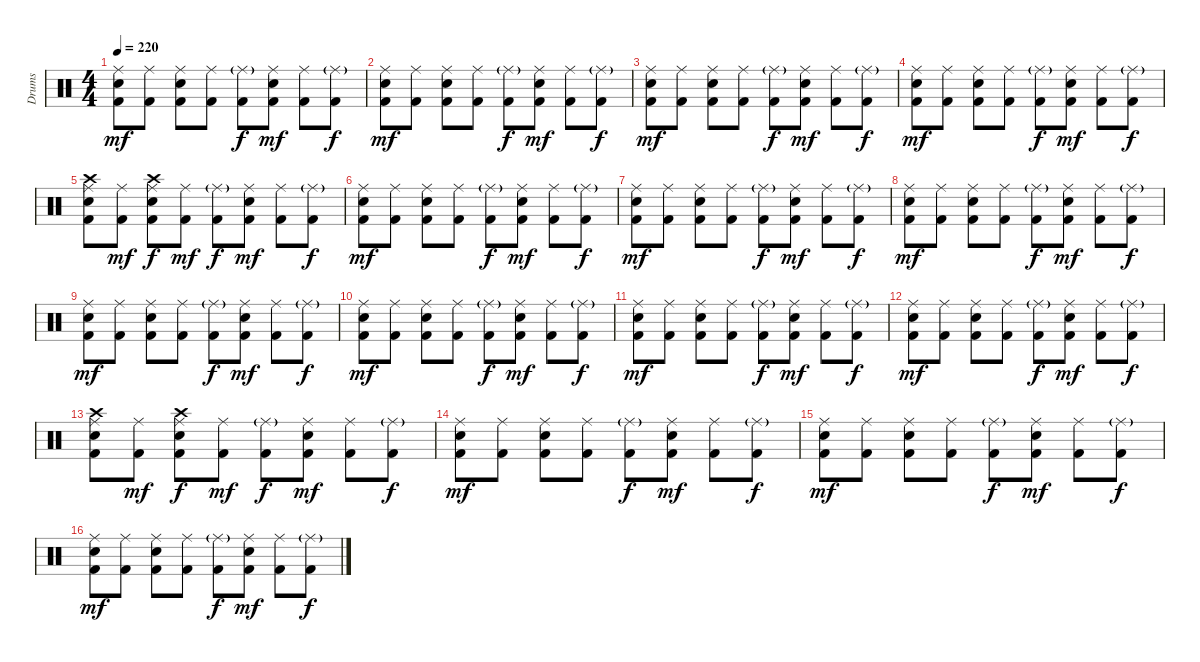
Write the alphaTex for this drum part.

\bracketExtendMode groupsimilarinstruments
\otherSystemsTrackNameOrientation horizontal
\track ("Drumkit" "Drums") {instrument percussion}
\staff {score}
\articulation defaults
\ts (4 4)
\tempo 220
\clef neutral
\ks c
("Ride (middle)" "Snare (hit) 2" "Kick (hit) 2").8{dy mf beam Down} ("Ride (middle)" "Kick (hit) 2").8{beam Down} ("Ride (middle)" "Snare (hit) 2" "Kick (hit) 2").8{beam Down} ("Ride (middle)" "Kick (hit) 2").8{beam Down} ("Ride (middle)"{g} "Kick (hit) 2").8{dy f beam Down} ("Ride (middle)" "Snare (hit) 2" "Kick (hit) 2").8{dy mf beam Down} ("Ride (middle)" "Kick (hit) 2").8{beam Down} ("Ride (middle)"{g} "Kick (hit) 2").8{dy f beam Down} |
("Ride (middle)" "Snare (hit) 2" "Kick (hit) 2").8{dy mf beam Down} ("Ride (middle)" "Kick (hit) 2").8{beam Down} ("Ride (middle)" "Snare (hit) 2" "Kick (hit) 2").8{beam Down} ("Ride (middle)" "Kick (hit) 2").8{beam Down} ("Ride (middle)"{g} "Kick (hit) 2").8{dy f beam Down} ("Ride (middle)" "Snare (hit) 2" "Kick (hit) 2").8{dy mf beam Down} ("Ride (middle)" "Kick (hit) 2").8{beam Down} ("Ride (middle)"{g} "Kick (hit) 2").8{dy f beam Down} |
("Ride (middle)" "Snare (hit) 2" "Kick (hit) 2").8{dy mf beam Down} ("Ride (middle)" "Kick (hit) 2").8{beam Down} ("Ride (middle)" "Snare (hit) 2" "Kick (hit) 2").8{beam Down} ("Ride (middle)" "Kick (hit) 2").8{beam Down} ("Ride (middle)"{g} "Kick (hit) 2").8{dy f beam Down} ("Ride (middle)" "Snare (hit) 2" "Kick (hit) 2").8{dy mf beam Down} ("Ride (middle)" "Kick (hit) 2").8{beam Down} ("Ride (middle)"{g} "Kick (hit) 2").8{dy f beam Down} |
("Ride (middle)" "Snare (hit) 2" "Kick (hit) 2").8{dy mf beam Down} ("Ride (middle)" "Kick (hit) 2").8{beam Down} ("Ride (middle)" "Snare (hit) 2" "Kick (hit) 2").8{beam Down} ("Ride (middle)" "Kick (hit) 2").8{beam Down} ("Ride (middle)"{g} "Kick (hit) 2").8{dy f beam Down} ("Ride (middle)" "Snare (hit) 2" "Kick (hit) 2").8{dy mf beam Down} ("Ride (middle)" "Kick (hit) 2").8{beam Down} ("Ride (middle)"{g} "Kick (hit) 2").8{dy f beam Down} |
("Crash high (hit)" "Ride (middle)" "Snare (hit) 2" "Kick (hit) 2").8{beam Down} ("Ride (middle)" "Kick (hit) 2").8{dy mf beam Down} ("Crash high (hit)" "Ride (middle)" "Snare (hit) 2" "Kick (hit) 2").8{dy f beam Down} ("Ride (middle)" "Kick (hit) 2").8{dy mf beam Down} ("Ride (middle)"{g} "Kick (hit) 2").8{dy f beam Down} ("Ride (middle)" "Snare (hit) 2" "Kick (hit) 2").8{dy mf beam Down} ("Ride (middle)" "Kick (hit) 2").8{beam Down} ("Ride (middle)"{g} "Kick (hit) 2").8{dy f beam Down} |
("Ride (middle)" "Snare (hit) 2" "Kick (hit) 2").8{dy mf beam Down} ("Ride (middle)" "Kick (hit) 2").8{beam Down} ("Ride (middle)" "Snare (hit) 2" "Kick (hit) 2").8{beam Down} ("Ride (middle)" "Kick (hit) 2").8{beam Down} ("Ride (middle)"{g} "Kick (hit) 2").8{dy f beam Down} ("Ride (middle)" "Snare (hit) 2" "Kick (hit) 2").8{dy mf beam Down} ("Ride (middle)" "Kick (hit) 2").8{beam Down} ("Ride (middle)"{g} "Kick (hit) 2").8{dy f beam Down} |
("Ride (middle)" "Snare (hit) 2" "Kick (hit) 2").8{dy mf beam Down} ("Ride (middle)" "Kick (hit) 2").8{beam Down} ("Ride (middle)" "Snare (hit) 2" "Kick (hit) 2").8{beam Down} ("Ride (middle)" "Kick (hit) 2").8{beam Down} ("Ride (middle)"{g} "Kick (hit) 2").8{dy f beam Down} ("Ride (middle)" "Snare (hit) 2" "Kick (hit) 2").8{dy mf beam Down} ("Ride (middle)" "Kick (hit) 2").8{beam Down} ("Ride (middle)"{g} "Kick (hit) 2").8{dy f beam Down} |
("Ride (middle)" "Snare (hit) 2" "Kick (hit) 2").8{dy mf beam Down} ("Ride (middle)" "Kick (hit) 2").8{beam Down} ("Ride (middle)" "Snare (hit) 2" "Kick (hit) 2").8{beam Down} ("Ride (middle)" "Kick (hit) 2").8{beam Down} ("Ride (middle)"{g} "Kick (hit) 2").8{dy f beam Down} ("Ride (middle)" "Snare (hit) 2" "Kick (hit) 2").8{dy mf beam Down} ("Ride (middle)" "Kick (hit) 2").8{beam Down} ("Ride (middle)"{g} "Kick (hit) 2").8{dy f beam Down} |
("Ride (middle)" "Snare (hit) 2" "Kick (hit) 2").8{dy mf beam Down} ("Ride (middle)" "Kick (hit) 2").8{beam Down} ("Ride (middle)" "Snare (hit) 2" "Kick (hit) 2").8{beam Down} ("Ride (middle)" "Kick (hit) 2").8{beam Down} ("Ride (middle)"{g} "Kick (hit) 2").8{dy f beam Down} ("Ride (middle)" "Snare (hit) 2" "Kick (hit) 2").8{dy mf beam Down} ("Ride (middle)" "Kick (hit) 2").8{beam Down} ("Ride (middle)"{g} "Kick (hit) 2").8{dy f beam Down} |
("Ride (middle)" "Snare (hit) 2" "Kick (hit) 2").8{dy mf beam Down} ("Ride (middle)" "Kick (hit) 2").8{beam Down} ("Ride (middle)" "Snare (hit) 2" "Kick (hit) 2").8{beam Down} ("Ride (middle)" "Kick (hit) 2").8{beam Down} ("Ride (middle)"{g} "Kick (hit) 2").8{dy f beam Down} ("Ride (middle)" "Snare (hit) 2" "Kick (hit) 2").8{dy mf beam Down} ("Ride (middle)" "Kick (hit) 2").8{beam Down} ("Ride (middle)"{g} "Kick (hit) 2").8{dy f beam Down} |
("Ride (middle)" "Snare (hit) 2" "Kick (hit) 2").8{dy mf beam Down} ("Ride (middle)" "Kick (hit) 2").8{beam Down} ("Ride (middle)" "Snare (hit) 2" "Kick (hit) 2").8{beam Down} ("Ride (middle)" "Kick (hit) 2").8{beam Down} ("Ride (middle)"{g} "Kick (hit) 2").8{dy f beam Down} ("Ride (middle)" "Snare (hit) 2" "Kick (hit) 2").8{dy mf beam Down} ("Ride (middle)" "Kick (hit) 2").8{beam Down} ("Ride (middle)"{g} "Kick (hit) 2").8{dy f beam Down} |
("Ride (middle)" "Snare (hit) 2" "Kick (hit) 2").8{dy mf beam Down} ("Ride (middle)" "Kick (hit) 2").8{beam Down} ("Ride (middle)" "Snare (hit) 2" "Kick (hit) 2").8{beam Down} ("Ride (middle)" "Kick (hit) 2").8{beam Down} ("Ride (middle)"{g} "Kick (hit) 2").8{dy f beam Down} ("Ride (middle)" "Snare (hit) 2" "Kick (hit) 2").8{dy mf beam Down} ("Ride (middle)" "Kick (hit) 2").8{beam Down} ("Ride (middle)"{g} "Kick (hit) 2").8{dy f beam Down} |
("Crash high (hit)" "Ride (middle)" "Snare (hit) 2" "Kick (hit) 2").8{beam Down} ("Ride (middle)" "Kick (hit) 2").8{dy mf beam Down} ("Crash high (hit)" "Ride (middle)" "Snare (hit) 2" "Kick (hit) 2").8{dy f beam Down} ("Ride (middle)" "Kick (hit) 2").8{dy mf beam Down} ("Ride (middle)"{g} "Kick (hit) 2").8{dy f beam Down} ("Ride (middle)" "Snare (hit) 2" "Kick (hit) 2").8{dy mf beam Down} ("Ride (middle)" "Kick (hit) 2").8{beam Down} ("Ride (middle)"{g} "Kick (hit) 2").8{dy f beam Down} |
("Ride (middle)" "Snare (hit) 2" "Kick (hit) 2").8{dy mf beam Down} ("Ride (middle)" "Kick (hit) 2").8{beam Down} ("Ride (middle)" "Snare (hit) 2" "Kick (hit) 2").8{beam Down} ("Ride (middle)" "Kick (hit) 2").8{beam Down} ("Ride (middle)"{g} "Kick (hit) 2").8{dy f beam Down} ("Ride (middle)" "Snare (hit) 2" "Kick (hit) 2").8{dy mf beam Down} ("Ride (middle)" "Kick (hit) 2").8{beam Down} ("Ride (middle)"{g} "Kick (hit) 2").8{dy f beam Down} |
("Ride (middle)" "Snare (hit) 2" "Kick (hit) 2").8{dy mf beam Down} ("Ride (middle)" "Kick (hit) 2").8{beam Down} ("Ride (middle)" "Snare (hit) 2" "Kick (hit) 2").8{beam Down} ("Ride (middle)" "Kick (hit) 2").8{beam Down} ("Ride (middle)"{g} "Kick (hit) 2").8{dy f beam Down} ("Ride (middle)" "Snare (hit) 2" "Kick (hit) 2").8{dy mf beam Down} ("Ride (middle)" "Kick (hit) 2").8{beam Down} ("Ride (middle)"{g} "Kick (hit) 2").8{dy f beam Down} |
("Ride (middle)" "Snare (hit) 2" "Kick (hit) 2").8{dy mf beam Down} ("Ride (middle)" "Kick (hit) 2").8{beam Down} ("Ride (middle)" "Snare (hit) 2" "Kick (hit) 2").8{beam Down} ("Ride (middle)" "Kick (hit) 2").8{beam Down} ("Ride (middle)"{g} "Kick (hit) 2").8{dy f beam Down} ("Ride (middle)" "Snare (hit) 2" "Kick (hit) 2").8{dy mf beam Down} ("Ride (middle)" "Kick (hit) 2").8{beam Down} ("Ride (middle)"{g} "Kick (hit) 2").8{dy f beam Down}
